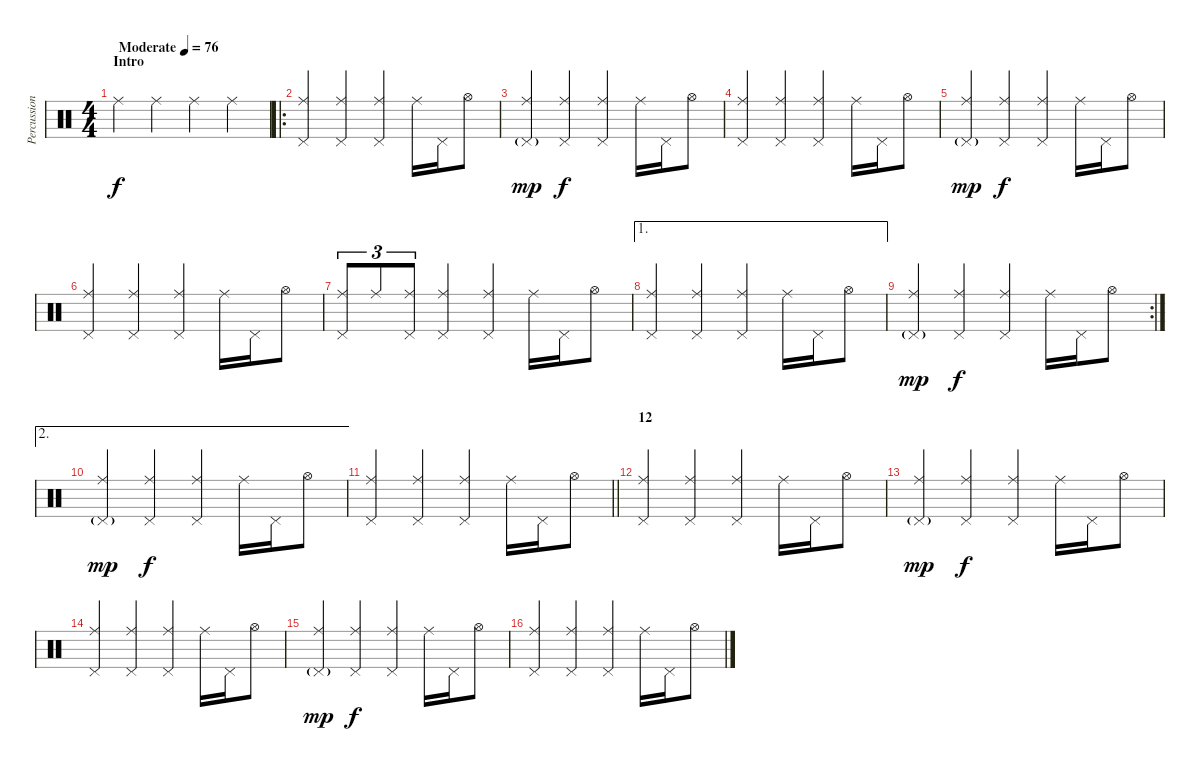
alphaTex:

\track ("Percussion" "Percussion") {instrument percussion}
\staff {score}
\articulation defaults
\ts (4 4)
\section ("" "Intro")
\tempo (76 "Moderate")
\clef neutral
\ks c "Ride (middle)".4{dy f} "Ride (middle)".4 "Ride (middle)".4 "Ride (middle)".4
|
\ro
("Ride (middle)" "Pedal Hi-Hat (hit)").4 ("Ride (middle)" "Pedal Hi-Hat (hit)").4 ("Ride (middle)" "Pedal Hi-Hat (hit)").4 "Ride (middle)".16 "Pedal Hi-Hat (hit)".16 "Hi-Hat (open)".8 |
("Ride (middle)" "Pedal Hi-Hat (hit)"{g}).4{dy mp} ("Ride (middle)" "Pedal Hi-Hat (hit)").4{dy f} ("Ride (middle)" "Pedal Hi-Hat (hit)").4 "Ride (middle)".16 "Pedal Hi-Hat (hit)".16 "Hi-Hat (open)".8 |
("Ride (middle)" "Pedal Hi-Hat (hit)").4 ("Ride (middle)" "Pedal Hi-Hat (hit)").4 ("Ride (middle)" "Pedal Hi-Hat (hit)").4 "Ride (middle)".16 "Pedal Hi-Hat (hit)".16 "Hi-Hat (open)".8 |
("Ride (middle)" "Pedal Hi-Hat (hit)"{g}).4{dy mp} ("Ride (middle)" "Pedal Hi-Hat (hit)").4{dy f} ("Ride (middle)" "Pedal Hi-Hat (hit)").4 "Ride (middle)".16 "Pedal Hi-Hat (hit)".16 "Hi-Hat (open)".8 |
("Ride (middle)" "Pedal Hi-Hat (hit)").4 ("Ride (middle)" "Pedal Hi-Hat (hit)").4 ("Ride (middle)" "Pedal Hi-Hat (hit)").4 "Ride (middle)".16 "Pedal Hi-Hat (hit)".16 "Hi-Hat (open)".8 |
("Ride (middle)" "Pedal Hi-Hat (hit)").8{tu (3 2)} "Ride (middle)".8{tu (3 2)} ("Ride (middle)" "Pedal Hi-Hat (hit)").8{tu (3 2)} ("Ride (middle)" "Pedal Hi-Hat (hit)").4 ("Ride (middle)" "Pedal Hi-Hat (hit)").4 "Ride (middle)".16 "Pedal Hi-Hat (hit)".16 "Hi-Hat (open)".8 |
\ae 1
("Ride (middle)" "Pedal Hi-Hat (hit)").4 ("Ride (middle)" "Pedal Hi-Hat (hit)").4 ("Ride (middle)" "Pedal Hi-Hat (hit)").4 "Ride (middle)".16 "Pedal Hi-Hat (hit)".16 "Hi-Hat (open)".8 |
\rc 2
("Ride (middle)" "Pedal Hi-Hat (hit)"{g}).4{dy mp} ("Ride (middle)" "Pedal Hi-Hat (hit)").4{dy f} ("Ride (middle)" "Pedal Hi-Hat (hit)").4 "Ride (middle)".16 "Pedal Hi-Hat (hit)".16 "Hi-Hat (open)".8 |
\ae 2
("Ride (middle)" "Pedal Hi-Hat (hit)"{g}).4{dy mp} ("Ride (middle)" "Pedal Hi-Hat (hit)").4{dy f} ("Ride (middle)" "Pedal Hi-Hat (hit)").4 "Ride (middle)".16 "Pedal Hi-Hat (hit)".16 "Hi-Hat (open)".8 |
\barLineRight lightlight
("Ride (middle)" "Pedal Hi-Hat (hit)").4 ("Ride (middle)" "Pedal Hi-Hat (hit)").4 ("Ride (middle)" "Pedal Hi-Hat (hit)").4 "Ride (middle)".16 "Pedal Hi-Hat (hit)".16 "Hi-Hat (open)".8 |
\section ("" "12")
("Ride (middle)" "Pedal Hi-Hat (hit)").4 ("Ride (middle)" "Pedal Hi-Hat (hit)").4 ("Ride (middle)" "Pedal Hi-Hat (hit)").4 "Ride (middle)".16 "Pedal Hi-Hat (hit)".16 "Hi-Hat (open)".8 |
("Ride (middle)" "Pedal Hi-Hat (hit)"{g}).4{dy mp} ("Ride (middle)" "Pedal Hi-Hat (hit)").4{dy f} ("Ride (middle)" "Pedal Hi-Hat (hit)").4 "Ride (middle)".16 "Pedal Hi-Hat (hit)".16 "Hi-Hat (open)".8 |
("Ride (middle)" "Pedal Hi-Hat (hit)").4 ("Ride (middle)" "Pedal Hi-Hat (hit)").4 ("Ride (middle)" "Pedal Hi-Hat (hit)").4 "Ride (middle)".16 "Pedal Hi-Hat (hit)".16 "Hi-Hat (open)".8 |
("Ride (middle)" "Pedal Hi-Hat (hit)"{g}).4{dy mp} ("Ride (middle)" "Pedal Hi-Hat (hit)").4{dy f} ("Ride (middle)" "Pedal Hi-Hat (hit)").4 "Ride (middle)".16 "Pedal Hi-Hat (hit)".16 "Hi-Hat (open)".8 |
("Ride (middle)" "Pedal Hi-Hat (hit)").4 ("Ride (middle)" "Pedal Hi-Hat (hit)").4 ("Ride (middle)" "Pedal Hi-Hat (hit)").4 "Ride (middle)".16 "Pedal Hi-Hat (hit)".16 "Hi-Hat (open)".8
